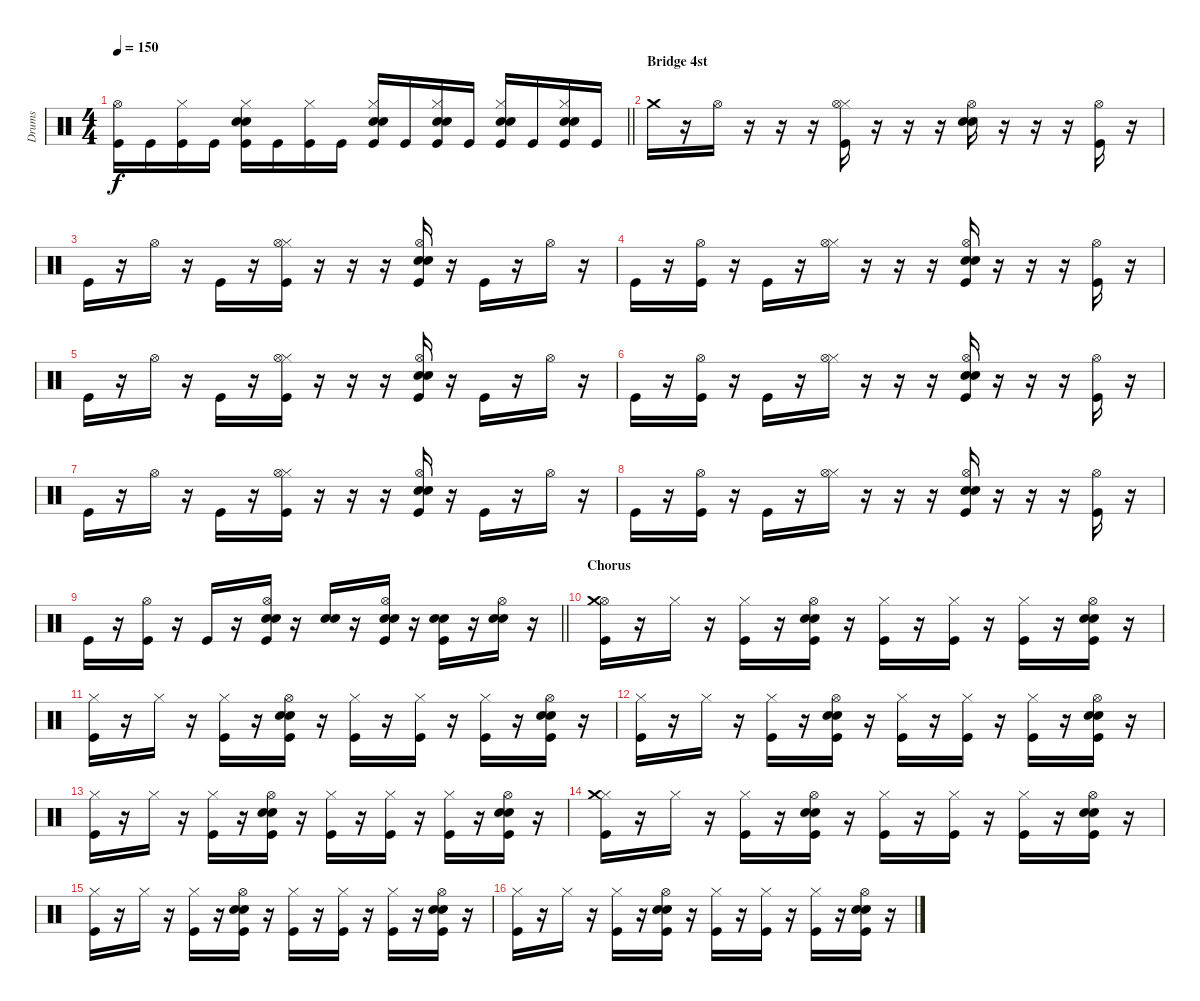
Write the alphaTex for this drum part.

\track ("Drums" "Drums") {instrument percussion}
\staff {score}
\articulation defaults
\ts (4 4)
\tempo 150
\clef neutral
\barLineRight lightlight
\ks c
("Kick (hit)" "Hi-Hat (open)").16{dy f} "Kick (hit)".16 ("Kick (hit)" "Hi-Hat (closed)").16 "Kick (hit)".16 ("Snare (hit) 2" "Electric Snare (hit)" "Kick (hit)" "Hi-Hat (closed)").16 "Kick (hit)".16 ("Kick (hit)" "Hi-Hat (closed)").16 "Kick (hit)".16 ("Electric Snare (hit)" "Snare (hit) 2" "Kick (hit)" "Hi-Hat (closed)").16 "Kick (hit)".16 ("Electric Snare (hit)" "Snare (hit) 2" "Kick (hit)" "Hi-Hat (closed)").16 "Kick (hit)".16 ("Snare (hit) 2" "Electric Snare (hit)" "Kick (hit)" "Hi-Hat (closed)").16 "Kick (hit)".16 ("Electric Snare (hit)" "Snare (hit) 2" "Kick (hit)" "Hi-Hat (closed)").16 "Kick (hit)".16 |
\section ("" "Bridge 4st")
"Crash medium (hit)".16 r.16 "Hi-Hat (open)".16 r.16 r.16 r.16 ("Hi-Hat (closed)" "Kick (hit)" "Hi-Hat (open)").16 r.16 r.16 r.16 ("Electric Snare (hit)" "Snare (hit) 2" "Hi-Hat (open)").16 r.16 r.16 r.16 ("Kick (hit)" "Hi-Hat (open)").16 r.16 |
"Kick (hit)".16 r.16 "Hi-Hat (open)".16 r.16 "Kick (hit)".16 r.16 ("Hi-Hat (closed)" "Kick (hit)" "Hi-Hat (open)").16 r.16 r.16 r.16 ("Electric Snare (hit)" "Snare (hit) 2" "Kick (hit)" "Hi-Hat (open)").16 r.16 "Kick (hit)".16 r.16 "Hi-Hat (open)".16 r.16 |
"Kick (hit)".16 r.16 ("Kick (hit)" "Hi-Hat (open)").16 r.16 "Kick (hit)".16 r.16 ("Hi-Hat (closed)" "Hi-Hat (open)").16 r.16 r.16 r.16 ("Electric Snare (hit)" "Snare (hit) 2" "Kick (hit)" "Hi-Hat (open)").16 r.16 r.16 r.16 ("Kick (hit)" "Hi-Hat (open)").16 r.16 |
"Kick (hit)".16 r.16 "Hi-Hat (open)".16 r.16 "Kick (hit)".16 r.16 ("Hi-Hat (closed)" "Kick (hit)" "Hi-Hat (open)").16 r.16 r.16 r.16 ("Electric Snare (hit)" "Snare (hit) 2" "Kick (hit)" "Hi-Hat (open)").16 r.16 "Kick (hit)".16 r.16 "Hi-Hat (open)".16 r.16 |
"Kick (hit)".16 r.16 ("Kick (hit)" "Hi-Hat (open)").16 r.16 "Kick (hit)".16 r.16 ("Hi-Hat (closed)" "Hi-Hat (open)").16 r.16 r.16 r.16 ("Electric Snare (hit)" "Snare (hit) 2" "Kick (hit)" "Hi-Hat (open)").16 r.16 r.16 r.16 ("Kick (hit)" "Hi-Hat (open)").16 r.16 |
"Kick (hit)".16 r.16 "Hi-Hat (open)".16 r.16 "Kick (hit)".16 r.16 ("Hi-Hat (closed)" "Kick (hit)" "Hi-Hat (open)").16 r.16 r.16 r.16 ("Electric Snare (hit)" "Snare (hit) 2" "Kick (hit)" "Hi-Hat (open)").16 r.16 "Kick (hit)".16 r.16 "Hi-Hat (open)".16 r.16 |
"Kick (hit)".16 r.16 ("Kick (hit)" "Hi-Hat (open)").16 r.16 "Kick (hit)".16 r.16 ("Hi-Hat (closed)" "Hi-Hat (open)").16 r.16 r.16 r.16 ("Electric Snare (hit)" "Snare (hit) 2" "Kick (hit)" "Hi-Hat (open)").16 r.16 r.16 r.16 ("Kick (hit)" "Hi-Hat (open)").16 r.16 |
\barLineRight lightlight "Kick (hit)".16
r.16 ("Kick (hit)" "Hi-Hat (open)").16 r.16 "Kick (hit)".16 r.16 ("Electric Snare (hit)" "Snare (hit) 2" "Kick (hit)" "Hi-Hat (open)").16 r.16 ("Electric Snare (hit)" "Snare (hit) 2").16 r.16 ("Electric Snare (hit)" "Snare (hit) 2" "Kick (hit)" "Hi-Hat (open)").16 r.16 ("Electric Snare (hit)" "Snare (hit) 2" "Kick (hit)").16 r.16 ("Electric Snare (hit)" "Snare (hit) 2" "Hi-Hat (open)").16 r.16 |
\section ("" "Chorus")
("Hi-Hat (open)" "Kick (hit)" "Crash medium (hit)").16 r.16 "Hi-Hat (closed)".16 r.16 ("Hi-Hat (closed)" "Kick (hit)").16 r.16 ("Hi-Hat (open)" "Electric Snare (hit)" "Snare (hit) 2" "Kick (hit)").16 r.16 ("Hi-Hat (closed)" "Kick (hit)").16 r.16 ("Hi-Hat (closed)" "Kick (hit)").16 r.16 ("Hi-Hat (closed)" "Kick (hit)").16 r.16 ("Hi-Hat (open)" "Electric Snare (hit)" "Snare (hit) 2" "Kick (hit)").16 r.16 |
("Hi-Hat (closed)" "Kick (hit)").16 r.16 "Hi-Hat (closed)".16 r.16 ("Hi-Hat (closed)" "Kick (hit)").16 r.16 ("Hi-Hat (open)" "Electric Snare (hit)" "Snare (hit) 2" "Kick (hit)").16 r.16 ("Hi-Hat (closed)" "Kick (hit)").16 r.16 ("Hi-Hat (closed)" "Kick (hit)").16 r.16 ("Hi-Hat (closed)" "Kick (hit)").16 r.16 ("Hi-Hat (open)" "Electric Snare (hit)" "Snare (hit) 2" "Kick (hit)").16 r.16 |
("Hi-Hat (closed)" "Kick (hit)").16 r.16 "Hi-Hat (closed)".16 r.16 ("Hi-Hat (closed)" "Kick (hit)").16 r.16 ("Hi-Hat (open)" "Electric Snare (hit)" "Snare (hit) 2" "Kick (hit)").16 r.16 ("Hi-Hat (closed)" "Kick (hit)").16 r.16 ("Hi-Hat (closed)" "Kick (hit)").16 r.16 ("Hi-Hat (closed)" "Kick (hit)").16 r.16 ("Hi-Hat (open)" "Electric Snare (hit)" "Snare (hit) 2" "Kick (hit)").16 r.16 |
("Hi-Hat (closed)" "Kick (hit)").16 r.16 "Hi-Hat (closed)".16 r.16 ("Hi-Hat (closed)" "Kick (hit)").16 r.16 ("Hi-Hat (open)" "Electric Snare (hit)" "Snare (hit) 2" "Kick (hit)").16 r.16 ("Hi-Hat (closed)" "Kick (hit)").16 r.16 ("Hi-Hat (closed)" "Kick (hit)").16 r.16 ("Hi-Hat (closed)" "Kick (hit)").16 r.16 ("Hi-Hat (open)" "Electric Snare (hit)" "Snare (hit) 2" "Kick (hit)").16 r.16 |
("Hi-Hat (closed)" "Kick (hit)" "Crash medium (hit)").16 r.16 "Hi-Hat (closed)".16 r.16 ("Hi-Hat (closed)" "Kick (hit)").16 r.16 ("Hi-Hat (open)" "Electric Snare (hit)" "Snare (hit) 2" "Kick (hit)").16 r.16 ("Hi-Hat (closed)" "Kick (hit)").16 r.16 ("Hi-Hat (closed)" "Kick (hit)").16 r.16 ("Hi-Hat (closed)" "Kick (hit)").16 r.16 ("Hi-Hat (open)" "Electric Snare (hit)" "Snare (hit) 2" "Kick (hit)").16 r.16 |
("Hi-Hat (closed)" "Kick (hit)").16 r.16 "Hi-Hat (closed)".16 r.16 ("Hi-Hat (closed)" "Kick (hit)").16 r.16 ("Hi-Hat (open)" "Electric Snare (hit)" "Snare (hit) 2" "Kick (hit)").16 r.16 ("Hi-Hat (closed)" "Kick (hit)").16 r.16 ("Hi-Hat (closed)" "Kick (hit)").16 r.16 ("Hi-Hat (closed)" "Kick (hit)").16 r.16 ("Hi-Hat (open)" "Electric Snare (hit)" "Snare (hit) 2" "Kick (hit)").16 r.16 |
("Hi-Hat (closed)" "Kick (hit)").16 r.16 "Hi-Hat (closed)".16 r.16 ("Hi-Hat (closed)" "Kick (hit)").16 r.16 ("Hi-Hat (open)" "Electric Snare (hit)" "Snare (hit) 2" "Kick (hit)").16 r.16 ("Hi-Hat (closed)" "Kick (hit)").16 r.16 ("Hi-Hat (closed)" "Kick (hit)").16 r.16 ("Hi-Hat (closed)" "Kick (hit)").16 r.16 ("Hi-Hat (open)" "Electric Snare (hit)" "Snare (hit) 2" "Kick (hit)").16 r.16
